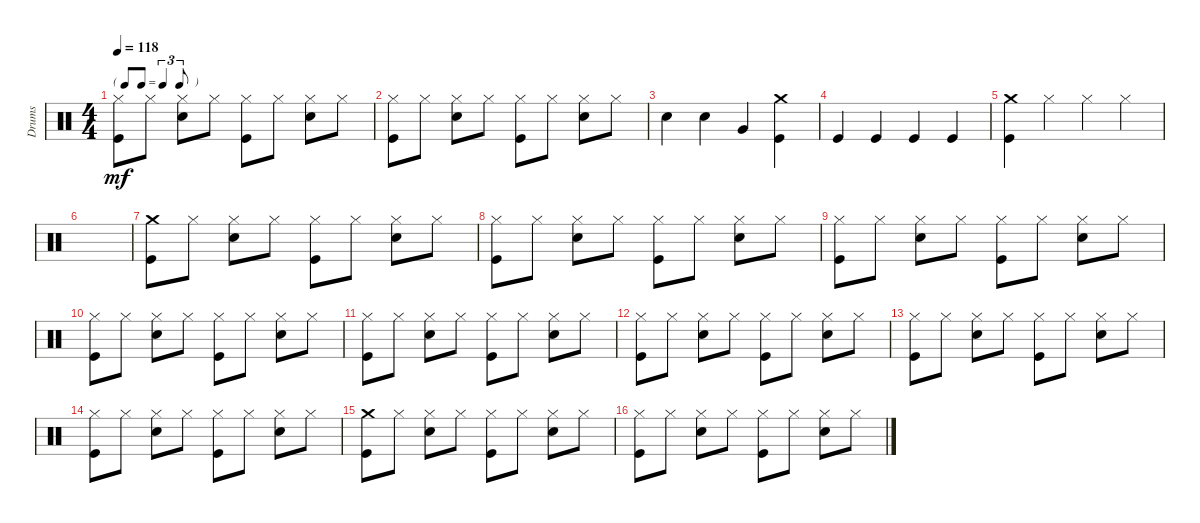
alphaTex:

\track ("Drums" "Drums") {instrument percussion}
\staff {score}
\articulation defaults
\ts (4 4)
\tf triplet8th
\tempo 118
\clef neutral
\ks c
("Hi-Hat (closed)" "Kick (hit)").8{dy mf} "Hi-Hat (closed)".8 ("Hi-Hat (closed)" "Snare (hit) 2").8 "Hi-Hat (closed)".8 ("Hi-Hat (closed)" "Kick (hit)").8 "Hi-Hat (closed)".8 ("Hi-Hat (closed)" "Snare (hit) 2").8 "Hi-Hat (closed)".8 |
("Hi-Hat (closed)" "Kick (hit)").8 "Hi-Hat (closed)".8 ("Hi-Hat (closed)" "Snare (hit) 2").8 "Hi-Hat (closed)".8 ("Hi-Hat (closed)" "Kick (hit)").8 "Hi-Hat (closed)".8 ("Hi-Hat (closed)" "Snare (hit) 2").8 "Hi-Hat (closed)".8 |
"Snare (hit) 2".4 "Snare (hit) 2".4 "Very Low Tom (hit)".4 ("Kick (hit)" "Crash medium (hit)").4 |
"Kick (hit)".4 "Kick (hit)".4 "Kick (hit)".4 "Kick (hit)".4 |
("Crash medium (hit)" "Kick (hit)").4 "Hi-Hat (closed)".4 "Hi-Hat (closed)".4 "Hi-Hat (closed)".4 |
|
("Crash medium (hit)" "Kick (hit)").8 "Hi-Hat (closed)".8 ("Hi-Hat (closed)" "Snare (hit) 2").8 "Hi-Hat (closed)".8 ("Hi-Hat (closed)" "Kick (hit)").8 "Hi-Hat (closed)".8 ("Hi-Hat (closed)" "Snare (hit) 2").8 "Hi-Hat (closed)".8 |
("Hi-Hat (closed)" "Kick (hit)").8 "Hi-Hat (closed)".8 ("Hi-Hat (closed)" "Snare (hit) 2").8 "Hi-Hat (closed)".8 ("Hi-Hat (closed)" "Kick (hit)").8 "Hi-Hat (closed)".8 ("Hi-Hat (closed)" "Snare (hit) 2").8 "Hi-Hat (closed)".8 |
("Hi-Hat (closed)" "Kick (hit)").8 "Hi-Hat (closed)".8 ("Hi-Hat (closed)" "Snare (hit) 2").8 "Hi-Hat (closed)".8 ("Hi-Hat (closed)" "Kick (hit)").8 "Hi-Hat (closed)".8 ("Hi-Hat (closed)" "Snare (hit) 2").8 "Hi-Hat (closed)".8 |
("Hi-Hat (closed)" "Kick (hit)").8 "Hi-Hat (closed)".8 ("Hi-Hat (closed)" "Snare (hit) 2").8 "Hi-Hat (closed)".8 ("Hi-Hat (closed)" "Kick (hit)").8 "Hi-Hat (closed)".8 ("Hi-Hat (closed)" "Snare (hit) 2").8 "Hi-Hat (closed)".8 |
("Hi-Hat (closed)" "Kick (hit)").8 "Hi-Hat (closed)".8 ("Hi-Hat (closed)" "Snare (hit) 2").8 "Hi-Hat (closed)".8 ("Hi-Hat (closed)" "Kick (hit)").8 "Hi-Hat (closed)".8 ("Hi-Hat (closed)" "Snare (hit) 2").8 "Hi-Hat (closed)".8 |
("Hi-Hat (closed)" "Kick (hit)").8 "Hi-Hat (closed)".8 ("Hi-Hat (closed)" "Snare (hit) 2").8 "Hi-Hat (closed)".8 ("Hi-Hat (closed)" "Kick (hit)").8 "Hi-Hat (closed)".8 ("Hi-Hat (closed)" "Snare (hit) 2").8 "Hi-Hat (closed)".8 |
("Hi-Hat (closed)" "Kick (hit)").8 "Hi-Hat (closed)".8 ("Hi-Hat (closed)" "Snare (hit) 2").8 "Hi-Hat (closed)".8 ("Hi-Hat (closed)" "Kick (hit)").8 "Hi-Hat (closed)".8 ("Hi-Hat (closed)" "Snare (hit) 2").8 "Hi-Hat (closed)".8 |
("Hi-Hat (closed)" "Kick (hit)").8 "Hi-Hat (closed)".8 ("Hi-Hat (closed)" "Snare (hit) 2").8 "Hi-Hat (closed)".8 ("Hi-Hat (closed)" "Kick (hit)").8 "Hi-Hat (closed)".8 ("Hi-Hat (closed)" "Snare (hit) 2").8 "Hi-Hat (closed)".8 |
("Kick (hit)" "Crash medium (hit)").8 "Hi-Hat (closed)".8 ("Hi-Hat (closed)" "Snare (hit) 2").8 "Hi-Hat (closed)".8 ("Hi-Hat (closed)" "Kick (hit)").8 "Hi-Hat (closed)".8 ("Hi-Hat (closed)" "Snare (hit) 2").8 "Hi-Hat (closed)".8 |
("Hi-Hat (closed)" "Kick (hit)").8 "Hi-Hat (closed)".8 ("Hi-Hat (closed)" "Snare (hit) 2").8 "Hi-Hat (closed)".8 ("Hi-Hat (closed)" "Kick (hit)").8 "Hi-Hat (closed)".8 ("Hi-Hat (closed)" "Snare (hit) 2").8 "Hi-Hat (closed)".8
